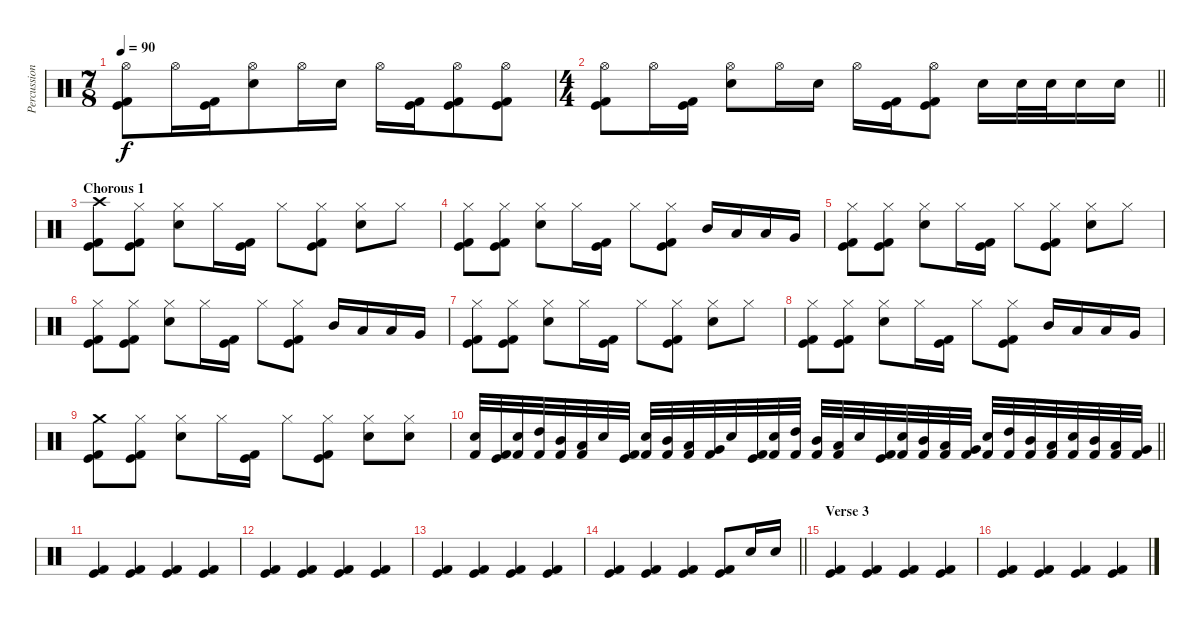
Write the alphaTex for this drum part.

\track ("Percussion" "Percussion") {instrument percussion}
\staff {score}
\articulation defaults
\ts (7 8)
\tempo 90
\clef neutral
\ks c
("Hi-Hat (open)" "Kick (hit)" "Kick (hit) 2").8{dy f} "Hi-Hat (open)".16 ("Kick (hit)" "Kick (hit) 2").16 ("Hi-Hat (open)" "Electric Snare (hit)").8 "Hi-Hat (open)".16 "Electric Snare (hit)".16 "Hi-Hat (open)".16 ("Kick (hit)" "Kick (hit) 2").16 ("Hi-Hat (open)" "Kick (hit)" "Kick (hit) 2").8 ("Hi-Hat (open)" "Kick (hit)" "Kick (hit) 2").8 |
\ts (4 4)
\barLineRight lightlight
("Hi-Hat (open)" "Kick (hit)" "Kick (hit) 2").8 "Hi-Hat (open)".16 ("Kick (hit)" "Kick (hit) 2").16 ("Hi-Hat (open)" "Electric Snare (hit)").8 "Hi-Hat (open)".16 "Electric Snare (hit)".16 "Hi-Hat (open)".16 ("Kick (hit)" "Kick (hit) 2").16 ("Hi-Hat (open)" "Kick (hit)" "Kick (hit) 2").8 "Electric Snare (hit)".16 "Electric Snare (hit)".32 "Electric Snare (hit)".32 "Electric Snare (hit)".16 "Electric Snare (hit)".16 |
\section ("" "Chorous 1")
("Crash high (hit)" "Kick (hit)" "Kick (hit) 2").8 ("Hi-Hat (closed)" "Kick (hit)" "Kick (hit) 2").8 ("Hi-Hat (closed)" "Electric Snare (hit)").8 "Hi-Hat (closed)".16 ("Kick (hit)" "Kick (hit) 2").16 "Hi-Hat (closed)".8 ("Hi-Hat (closed)" "Kick (hit)" "Kick (hit) 2").8 ("Hi-Hat (closed)" "Electric Snare (hit)").8 "Hi-Hat (closed)".8 |
("Hi-Hat (closed)" "Kick (hit)" "Kick (hit) 2").8 ("Hi-Hat (closed)" "Kick (hit)" "Kick (hit) 2").8 ("Hi-Hat (closed)" "Electric Snare (hit)").8 "Hi-Hat (closed)".16 ("Kick (hit)" "Kick (hit) 2").16 "Hi-Hat (closed)".8 ("Hi-Hat (closed)" "Kick (hit)" "Kick (hit) 2").8 "Mid Tom (hit)".16 "Low Tom (hit)".16 "Low Tom (hit)".16 "Very Low Tom (hit)".16 |
("Hi-Hat (closed)" "Kick (hit)" "Kick (hit) 2").8 ("Hi-Hat (closed)" "Kick (hit)" "Kick (hit) 2").8 ("Hi-Hat (closed)" "Electric Snare (hit)").8 "Hi-Hat (closed)".16 ("Kick (hit)" "Kick (hit) 2").16 "Hi-Hat (closed)".8 ("Hi-Hat (closed)" "Kick (hit)" "Kick (hit) 2").8 ("Hi-Hat (closed)" "Electric Snare (hit)").8 "Hi-Hat (closed)".8 |
("Hi-Hat (closed)" "Kick (hit)" "Kick (hit) 2").8 ("Hi-Hat (closed)" "Kick (hit)" "Kick (hit) 2").8 ("Hi-Hat (closed)" "Electric Snare (hit)").8 "Hi-Hat (closed)".16 ("Kick (hit)" "Kick (hit) 2").16 "Hi-Hat (closed)".8 ("Hi-Hat (closed)" "Kick (hit)" "Kick (hit) 2").8 "Mid Tom (hit)".16 "Low Tom (hit)".16 "Low Tom (hit)".16 "Very Low Tom (hit)".16 |
("Hi-Hat (closed)" "Kick (hit)" "Kick (hit) 2").8 ("Hi-Hat (closed)" "Kick (hit)" "Kick (hit) 2").8 ("Hi-Hat (closed)" "Electric Snare (hit)").8 "Hi-Hat (closed)".16 ("Kick (hit)" "Kick (hit) 2").16 "Hi-Hat (closed)".8 ("Hi-Hat (closed)" "Kick (hit)" "Kick (hit) 2").8 ("Hi-Hat (closed)" "Electric Snare (hit)").8 "Hi-Hat (closed)".8 |
("Hi-Hat (closed)" "Kick (hit)" "Kick (hit) 2").8 ("Hi-Hat (closed)" "Kick (hit)" "Kick (hit) 2").8 ("Hi-Hat (closed)" "Electric Snare (hit)").8 "Hi-Hat (closed)".16 ("Kick (hit)" "Kick (hit) 2").16 "Hi-Hat (closed)".8 ("Hi-Hat (closed)" "Kick (hit)" "Kick (hit) 2").8 "Mid Tom (hit)".16 "Low Tom (hit)".16 "Low Tom (hit)".16 "Very Low Tom (hit)".16 |
("Crash medium (hit)" "Kick (hit)" "Kick (hit) 2").8 ("Hi-Hat (closed)" "Kick (hit)" "Kick (hit) 2").8 ("Hi-Hat (closed)" "Electric Snare (hit)").8 "Hi-Hat (closed)".16 ("Kick (hit)" "Kick (hit) 2").16 "Hi-Hat (closed)".8 ("Hi-Hat (closed)" "Kick (hit)" "Kick (hit) 2").8 ("Hi-Hat (closed)" "Electric Snare (hit)").8 ("Hi-Hat (closed)" "Electric Snare (hit)").8 |
\barLineRight lightlight
("Electric Snare (hit)" "Kick (hit) 2").32 ("Kick (hit)" "Kick (hit) 2").32 ("Electric Snare (hit)" "Kick (hit) 2").32 ("High Tom (hit)" "Kick (hit) 2").32 ("Mid Tom (hit)" "Kick (hit) 2").32 ("Low Tom (hit)" "Kick (hit) 2").32 "Electric Snare (hit)".32 ("Kick (hit)" "Kick (hit) 2").32 ("Electric Snare (hit)" "Kick (hit) 2").32 ("Mid Tom (hit)" "Kick (hit) 2").32 ("Low Tom (hit)" "Kick (hit) 2").32 ("Very Low Tom (hit)" "Kick (hit) 2").32 "Electric Snare (hit)".32 ("Kick (hit)" "Kick (hit) 2").32 ("Electric Snare (hit)" "Kick (hit) 2").32 ("High Tom (hit)" "Kick (hit) 2").32 ("Mid Tom (hit)" "Kick (hit) 2").32 ("Low Tom (hit)" "Kick (hit) 2").32 "Electric Snare (hit)".32 ("Kick (hit)" "Kick (hit) 2").32 ("Electric Snare (hit)" "Kick (hit) 2").32 ("Mid Tom (hit)" "Kick (hit) 2").32 ("Low Tom (hit)" "Kick (hit) 2").32 ("Very Low Tom (hit)" "Kick (hit) 2").32 ("Electric Snare (hit)" "Kick (hit) 2").32 ("High Tom (hit)" "Kick (hit) 2").32 ("Mid Tom (hit)" "Kick (hit) 2").32 ("Low Tom (hit)" "Kick (hit) 2").32 ("Electric Snare (hit)" "Kick (hit) 2").32 ("Mid Tom (hit)" "Kick (hit) 2").32 ("Low Tom (hit)" "Kick (hit) 2").32 ("Very Low Tom (hit)" "Kick (hit) 2").32 |
\section ("" "")
("Kick (hit)" "Kick (hit) 2").4 ("Kick (hit)" "Kick (hit) 2").4 ("Kick (hit)" "Kick (hit) 2").4 ("Kick (hit)" "Kick (hit) 2").4 |
("Kick (hit)" "Kick (hit) 2").4 ("Kick (hit)" "Kick (hit) 2").4 ("Kick (hit)" "Kick (hit) 2").4 ("Kick (hit)" "Kick (hit) 2").4 |
("Kick (hit)" "Kick (hit) 2").4 ("Kick (hit)" "Kick (hit) 2").4 ("Kick (hit)" "Kick (hit) 2").4 ("Kick (hit)" "Kick (hit) 2").4 |
\barLineRight lightlight
("Kick (hit)" "Kick (hit) 2").4 ("Kick (hit)" "Kick (hit) 2").4 ("Kick (hit)" "Kick (hit) 2").4 ("Kick (hit)" "Kick (hit) 2").8 "Electric Snare (hit)".16 "Electric Snare (hit)".16 |
\section ("" "Verse 3")
("Kick (hit)" "Kick (hit) 2").4 ("Kick (hit)" "Kick (hit) 2").4 ("Kick (hit)" "Kick (hit) 2").4 ("Kick (hit)" "Kick (hit) 2").4 |
("Kick (hit)" "Kick (hit) 2").4 ("Kick (hit)" "Kick (hit) 2").4 ("Kick (hit)" "Kick (hit) 2").4 ("Kick (hit)" "Kick (hit) 2").4
